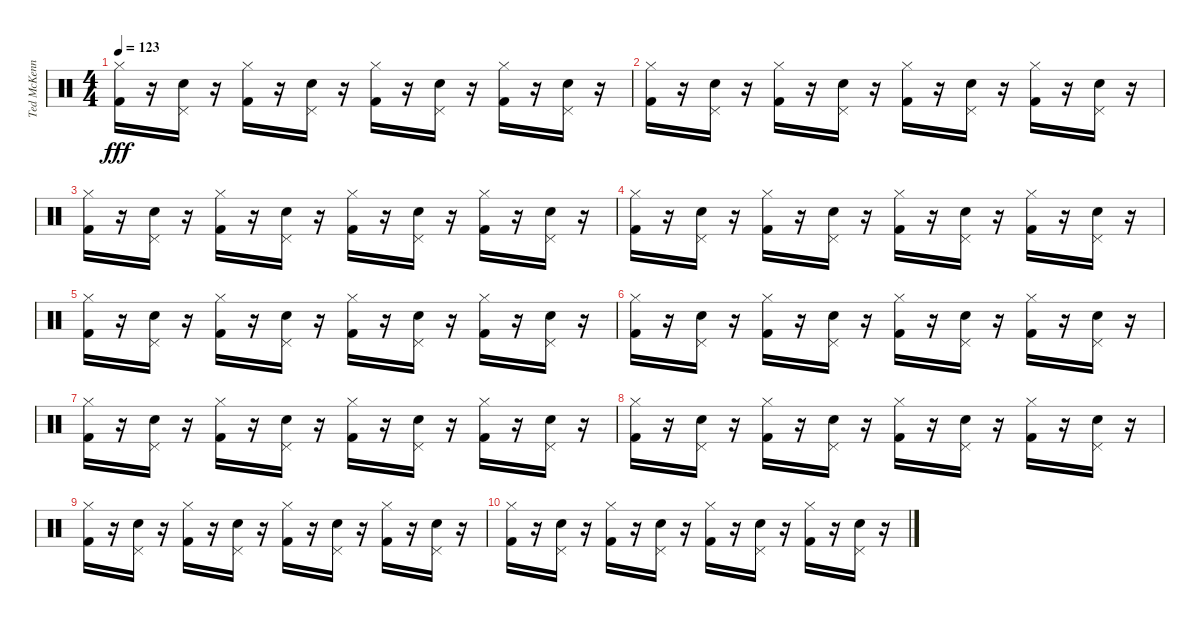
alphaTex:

\track ("Ted McKenna" "Ted McKenn") {instrument percussion}
\staff {score}
\articulation defaults
\ts (4 4)
\tempo 123
\clef neutral
\ks c
("Hi-Hat (closed)" "Kick (hit) 2").16{dy fff} r.16 ("Snare (hit) 2" "Pedal Hi-Hat (hit)").16 r.16 ("Hi-Hat (closed)" "Kick (hit) 2").16 r.16 ("Snare (hit) 2" "Pedal Hi-Hat (hit)").16 r.16 ("Hi-Hat (closed)" "Kick (hit) 2").16 r.16 ("Snare (hit) 2" "Pedal Hi-Hat (hit)").16 r.16 ("Hi-Hat (closed)" "Kick (hit) 2").16 r.16 ("Snare (hit) 2" "Pedal Hi-Hat (hit)").16 r.16 |
("Hi-Hat (closed)" "Kick (hit) 2").16 r.16 ("Snare (hit) 2" "Pedal Hi-Hat (hit)").16 r.16 ("Hi-Hat (closed)" "Kick (hit) 2").16 r.16 ("Snare (hit) 2" "Pedal Hi-Hat (hit)").16 r.16 ("Hi-Hat (closed)" "Kick (hit) 2").16 r.16 ("Snare (hit) 2" "Pedal Hi-Hat (hit)").16 r.16 ("Hi-Hat (closed)" "Kick (hit) 2").16 r.16 ("Snare (hit) 2" "Pedal Hi-Hat (hit)").16 r.16 |
("Hi-Hat (closed)" "Kick (hit) 2").16 r.16 ("Snare (hit) 2" "Pedal Hi-Hat (hit)").16 r.16 ("Hi-Hat (closed)" "Kick (hit) 2").16 r.16 ("Snare (hit) 2" "Pedal Hi-Hat (hit)").16 r.16 ("Hi-Hat (closed)" "Kick (hit) 2").16 r.16 ("Snare (hit) 2" "Pedal Hi-Hat (hit)").16 r.16 ("Hi-Hat (closed)" "Kick (hit) 2").16 r.16 ("Snare (hit) 2" "Pedal Hi-Hat (hit)").16 r.16 |
("Hi-Hat (closed)" "Kick (hit) 2").16 r.16 ("Snare (hit) 2" "Pedal Hi-Hat (hit)").16 r.16 ("Hi-Hat (closed)" "Kick (hit) 2").16 r.16 ("Snare (hit) 2" "Pedal Hi-Hat (hit)").16 r.16 ("Hi-Hat (closed)" "Kick (hit) 2").16 r.16 ("Snare (hit) 2" "Pedal Hi-Hat (hit)").16 r.16 ("Hi-Hat (closed)" "Kick (hit) 2").16 r.16 ("Snare (hit) 2" "Pedal Hi-Hat (hit)").16 r.16 |
("Hi-Hat (closed)" "Kick (hit) 2").16 r.16 ("Snare (hit) 2" "Pedal Hi-Hat (hit)").16 r.16 ("Hi-Hat (closed)" "Kick (hit) 2").16 r.16 ("Snare (hit) 2" "Pedal Hi-Hat (hit)").16 r.16 ("Hi-Hat (closed)" "Kick (hit) 2").16 r.16 ("Snare (hit) 2" "Pedal Hi-Hat (hit)").16 r.16 ("Hi-Hat (closed)" "Kick (hit) 2").16 r.16 ("Snare (hit) 2" "Pedal Hi-Hat (hit)").16 r.16 |
("Hi-Hat (closed)" "Kick (hit) 2").16 r.16 ("Snare (hit) 2" "Pedal Hi-Hat (hit)").16 r.16 ("Hi-Hat (closed)" "Kick (hit) 2").16 r.16 ("Snare (hit) 2" "Pedal Hi-Hat (hit)").16 r.16 ("Hi-Hat (closed)" "Kick (hit) 2").16 r.16 ("Snare (hit) 2" "Pedal Hi-Hat (hit)").16 r.16 ("Hi-Hat (closed)" "Kick (hit) 2").16 r.16 ("Snare (hit) 2" "Pedal Hi-Hat (hit)").16 r.16 |
("Hi-Hat (closed)" "Kick (hit) 2").16 r.16 ("Snare (hit) 2" "Pedal Hi-Hat (hit)").16 r.16 ("Hi-Hat (closed)" "Kick (hit) 2").16 r.16 ("Snare (hit) 2" "Pedal Hi-Hat (hit)").16 r.16 ("Hi-Hat (closed)" "Kick (hit) 2").16 r.16 ("Snare (hit) 2" "Pedal Hi-Hat (hit)").16 r.16 ("Hi-Hat (closed)" "Kick (hit) 2").16 r.16 ("Snare (hit) 2" "Pedal Hi-Hat (hit)").16 r.16 |
("Hi-Hat (closed)" "Kick (hit) 2").16 r.16 ("Snare (hit) 2" "Pedal Hi-Hat (hit)").16 r.16 ("Hi-Hat (closed)" "Kick (hit) 2").16 r.16 ("Snare (hit) 2" "Pedal Hi-Hat (hit)").16 r.16 ("Hi-Hat (closed)" "Kick (hit) 2").16 r.16 ("Snare (hit) 2" "Pedal Hi-Hat (hit)").16 r.16 ("Hi-Hat (closed)" "Kick (hit) 2").16 r.16 ("Snare (hit) 2" "Pedal Hi-Hat (hit)").16 r.16 |
("Hi-Hat (closed)" "Kick (hit) 2").16 r.16 ("Snare (hit) 2" "Pedal Hi-Hat (hit)").16 r.16 ("Hi-Hat (closed)" "Kick (hit) 2").16 r.16 ("Snare (hit) 2" "Pedal Hi-Hat (hit)").16 r.16 ("Hi-Hat (closed)" "Kick (hit) 2").16 r.16 ("Snare (hit) 2" "Pedal Hi-Hat (hit)").16 r.16 ("Hi-Hat (closed)" "Kick (hit) 2").16 r.16 ("Snare (hit) 2" "Pedal Hi-Hat (hit)").16 r.16 |
("Hi-Hat (closed)" "Kick (hit) 2").16 r.16 ("Snare (hit) 2" "Pedal Hi-Hat (hit)").16 r.16 ("Hi-Hat (closed)" "Kick (hit) 2").16 r.16 ("Snare (hit) 2" "Pedal Hi-Hat (hit)").16 r.16 ("Hi-Hat (closed)" "Kick (hit) 2").16 r.16 ("Snare (hit) 2" "Pedal Hi-Hat (hit)").16 r.16 ("Hi-Hat (closed)" "Kick (hit) 2").16 r.16 ("Snare (hit) 2" "Pedal Hi-Hat (hit)").16 r.16
